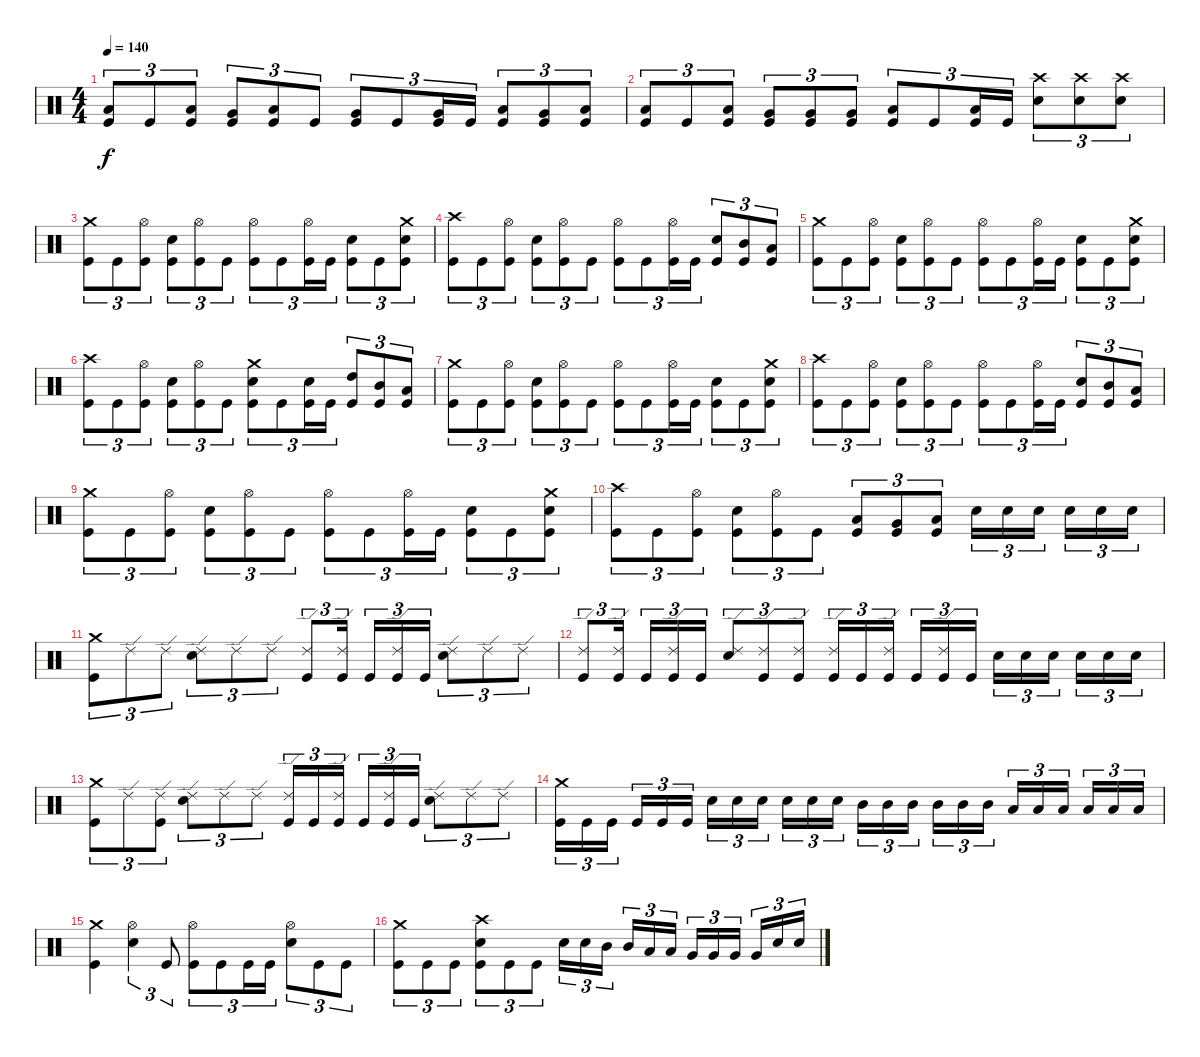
\track "" {instrument percussion}
\staff {score}
\articulation defaults
\ts (4 4)
\tempo 140
\clef neutral
\ks c
("Low Tom (hit)" "Kick (hit)").8{tu (3 2) dy f} "Kick (hit)".8{tu (3 2)} ("Low Tom (hit)" "Kick (hit)").8{tu (3 2)} ("Very Low Tom (hit)" "Kick (hit)").8{tu (3 2)} ("Low Tom (hit)" "Kick (hit)").8{tu (3 2)} "Kick (hit)".8{tu (3 2)} ("Very Low Tom (hit)" "Kick (hit)").8{tu (3 2)} "Kick (hit)".8{tu (3 2)} ("Very Low Tom (hit)" "Kick (hit)").16{tu (3 2)} "Kick (hit)".16{tu (3 2)} ("Low Floor Tom (hit)" "Kick (hit)").8{tu (3 2)} ("Kick (hit)" "Very Low Tom (hit)").8{tu (3 2)} ("Kick (hit)" "Low Floor Tom (hit)").8{tu (3 2)} |
("Low Tom (hit)" "Kick (hit)").8{tu (3 2)} "Kick (hit)".8{tu (3 2)} ("Kick (hit)" "Low Tom (hit)").8{tu (3 2)} ("Very Low Tom (hit)" "Kick (hit)").8{tu (3 2)} ("Very Low Tom (hit)" "Kick (hit)").8{tu (3 2)} ("Very Low Tom (hit)" "Kick (hit)").8{tu (3 2)} ("Low Floor Tom (hit)" "Kick (hit)").8{tu (3 2)} "Kick (hit)".8{tu (3 2)} ("Low Floor Tom (hit)" "Kick (hit)").16{tu (3 2)} "Kick (hit)".16{tu (3 2)} ("Snare (hit) 2" "Crash high (hit)").8{tu (3 2)} ("Snare (hit) 2" "Crash high (hit)").8{tu (3 2)} ("Snare (hit) 2" "Crash high (hit)").8{tu (3 2)} |
("Crash medium (hit)" "Kick (hit)").8{tu (3 2)} "Kick (hit)".8{tu (3 2)} ("Hi-Hat (open)" "Kick (hit)").8{tu (3 2)} ("Snare (hit) 2" "Kick (hit)").8{tu (3 2)} ("Hi-Hat (open)" "Kick (hit)").8{tu (3 2)} "Kick (hit)".8{tu (3 2)} ("Hi-Hat (open)" "Kick (hit)").8{tu (3 2)} "Kick (hit)".8{tu (3 2)} ("Hi-Hat (open)" "Kick (hit)").16{tu (3 2)} "Kick (hit)".16{tu (3 2)} ("Snare (hit) 2" "Kick (hit)").8{tu (3 2)} "Kick (hit)".8{tu (3 2)} ("Snare (hit) 2" "Crash medium (hit)" "Kick (hit)").8{tu (3 2)} |
("Crash high (hit)" "Kick (hit)").8{tu (3 2)} "Kick (hit)".8{tu (3 2)} ("Kick (hit)" "Hi-Hat (open)").8{tu (3 2)} ("Kick (hit)" "Snare (hit) 2").8{tu (3 2)} ("Kick (hit)" "Hi-Hat (open)").8{tu (3 2)} "Kick (hit)".8{tu (3 2)} ("Hi-Hat (open)" "Kick (hit)").8{tu (3 2)} "Kick (hit)".8{tu (3 2)} ("Hi-Hat (open)" "Kick (hit)").16{tu (3 2)} "Kick (hit)".16{tu (3 2)} ("Kick (hit)" "Snare (hit) 2").8{tu (3 2)} ("Kick (hit)" "Mid Tom (hit)").8{tu (3 2)} ("Kick (hit)" "Low Tom (hit)").8{tu (3 2)} |
("Crash medium (hit)" "Kick (hit)").8{tu (3 2)} "Kick (hit)".8{tu (3 2)} ("Kick (hit)" "Hi-Hat (open)").8{tu (3 2)} ("Kick (hit)" "Snare (hit) 2").8{tu (3 2)} ("Kick (hit)" "Hi-Hat (open)").8{tu (3 2)} "Kick (hit)".8{tu (3 2)} ("Hi-Hat (open)" "Kick (hit)").8{tu (3 2)} "Kick (hit)".8{tu (3 2)} ("Hi-Hat (open)" "Kick (hit)").16{tu (3 2)} "Kick (hit)".16{tu (3 2)} ("Kick (hit)" "Snare (hit) 2").8{tu (3 2)} "Kick (hit)".8{tu (3 2)} ("Kick (hit)" "Snare (hit) 2" "Crash medium (hit)").8{tu (3 2)} |
("Crash high (hit)" "Kick (hit)").8{tu (3 2)} "Kick (hit)".8{tu (3 2)} ("Kick (hit)" "Hi-Hat (open)").8{tu (3 2)} ("Kick (hit)" "Snare (hit) 2").8{tu (3 2)} ("Kick (hit)" "Hi-Hat (open)").8{tu (3 2)} "Kick (hit)".8{tu (3 2)} ("Snare (hit) 2" "Crash medium (hit)" "Kick (hit)").8{tu (3 2)} "Kick (hit)".8{tu (3 2)} ("Snare (hit) 2" "Kick (hit)").16{tu (3 2)} "Kick (hit)".16{tu (3 2)} ("Kick (hit)" "High Tom (hit)").8{tu (3 2)} ("Kick (hit)" "Mid Tom (hit)").8{tu (3 2)} ("Kick (hit)" "Low Tom (hit)").8{tu (3 2)} |
("Crash medium (hit)" "Kick (hit)").8{tu (3 2)} "Kick (hit)".8{tu (3 2)} ("Hi-Hat (open)" "Kick (hit)").8{tu (3 2)} ("Snare (hit) 2" "Kick (hit)").8{tu (3 2)} ("Hi-Hat (open)" "Kick (hit)").8{tu (3 2)} "Kick (hit)".8{tu (3 2)} ("Hi-Hat (open)" "Kick (hit)").8{tu (3 2)} "Kick (hit)".8{tu (3 2)} ("Hi-Hat (open)" "Kick (hit)").16{tu (3 2)} "Kick (hit)".16{tu (3 2)} ("Snare (hit) 2" "Kick (hit)").8{tu (3 2)} "Kick (hit)".8{tu (3 2)} ("Snare (hit) 2" "Crash medium (hit)" "Kick (hit)").8{tu (3 2)} |
("Crash high (hit)" "Kick (hit)").8{tu (3 2)} "Kick (hit)".8{tu (3 2)} ("Kick (hit)" "Hi-Hat (open)").8{tu (3 2)} ("Kick (hit)" "Snare (hit) 2").8{tu (3 2)} ("Kick (hit)" "Hi-Hat (open)").8{tu (3 2)} "Kick (hit)".8{tu (3 2)} ("Hi-Hat (open)" "Kick (hit)").8{tu (3 2)} "Kick (hit)".8{tu (3 2)} ("Hi-Hat (open)" "Kick (hit)").16{tu (3 2)} "Kick (hit)".16{tu (3 2)} ("Kick (hit)" "Snare (hit) 2").8{tu (3 2)} ("Kick (hit)" "Mid Tom (hit)").8{tu (3 2)} ("Kick (hit)" "Low Tom (hit)").8{tu (3 2)} |
("Crash medium (hit)" "Kick (hit)").8{tu (3 2)} "Kick (hit)".8{tu (3 2)} ("Kick (hit)" "Hi-Hat (open)").8{tu (3 2)} ("Kick (hit)" "Snare (hit) 2").8{tu (3 2)} ("Kick (hit)" "Hi-Hat (open)").8{tu (3 2)} "Kick (hit)".8{tu (3 2)} ("Hi-Hat (open)" "Kick (hit)").8{tu (3 2)} "Kick (hit)".8{tu (3 2)} ("Hi-Hat (open)" "Kick (hit)").16{tu (3 2)} "Kick (hit)".16{tu (3 2)} ("Kick (hit)" "Snare (hit) 2").8{tu (3 2)} "Kick (hit)".8{tu (3 2)} ("Kick (hit)" "Snare (hit) 2" "Crash medium (hit)").8{tu (3 2)} |
("Crash high (hit)" "Kick (hit)").8{tu (3 2)} "Kick (hit)".8{tu (3 2)} ("Kick (hit)" "Hi-Hat (open)").8{tu (3 2)} ("Kick (hit)" "Snare (hit) 2").8{tu (3 2)} ("Kick (hit)" "Hi-Hat (open)").8{tu (3 2)} "Kick (hit)".8{tu (3 2)} ("Low Tom (hit)" "Kick (hit)").8{tu (3 2)} ("Very Low Tom (hit)" "Kick (hit)").8{tu (3 2)} ("Low Floor Tom (hit)" "Kick (hit)").8{tu (3 2)} "Snare (hit) 2".16{tu (3 2)} "Snare (hit) 2".16{tu (3 2)} "Snare (hit) 2".16{tu (3 2) beam splitsecondary} "Snare (hit) 2".16{tu (3 2)} "Snare (hit) 2".16{tu (3 2)} "Snare (hit) 2".16{tu (3 2)} |
("Crash medium (hit)" "Kick (hit)").8{tu (3 2)} "Ride (edge) 2".8{tu (3 2)} "Ride (edge) 2".8{tu (3 2)} ("Snare (hit) 2" "Ride (edge) 2").8{tu (3 2)} "Ride (edge) 2".8{tu (3 2)} "Ride (edge) 2".8{tu (3 2)} ("Ride (edge) 2" "Kick (hit)").8{tu (3 2)} ("Ride (edge) 2" "Kick (hit)").16{tu (3 2) beam splitsecondary} "Kick (hit)".16{tu (3 2)} ("Ride (edge) 2" "Kick (hit)").16{tu (3 2)} "Kick (hit)".16{tu (3 2)} ("Ride (edge) 2" "Snare (hit) 2").8{tu (3 2)} "Ride (edge) 2".8{tu (3 2)} "Ride (edge) 2".8{tu (3 2)} |
("Kick (hit)" "Ride (edge) 2").8{tu (3 2)} ("Kick (hit)" "Ride (edge) 2").16{tu (3 2) beam splitsecondary} "Kick (hit)".16{tu (3 2)} ("Kick (hit)" "Ride (edge) 2").16{tu (3 2)} "Kick (hit)".16{tu (3 2)} ("Snare (hit) 2" "Ride (edge) 2").8{tu (3 2)} ("Kick (hit)" "Ride (edge) 2").8{tu (3 2)} ("Kick (hit)" "Ride (edge) 2").8{tu (3 2)} ("Kick (hit)" "Ride (edge) 2").16{tu (3 2)} "Kick (hit)".16{tu (3 2)} ("Kick (hit)" "Ride (edge) 2").16{tu (3 2) beam splitsecondary} "Kick (hit)".16{tu (3 2)} ("Kick (hit)" "Ride (edge) 2").16{tu (3 2)} "Kick (hit)".16{tu (3 2)} "Snare (hit) 2".16{tu (3 2)} "Snare (hit) 2".16{tu (3 2)} "Snare (hit) 2".16{tu (3 2) beam splitsecondary} "Snare (hit) 2".16{tu (3 2)} "Snare (hit) 2".16{tu (3 2)} "Snare (hit) 2".16{tu (3 2)} |
("Kick (hit)" "Crash medium (hit)").8{tu (3 2)} "Ride (edge) 2".8{tu (3 2)} ("Kick (hit)" "Ride (edge) 2").8{tu (3 2)} ("Ride (edge) 2" "Snare (hit) 2").8{tu (3 2)} "Ride (edge) 2".8{tu (3 2)} "Ride (edge) 2".8{tu (3 2)} ("Kick (hit)" "Ride (edge) 2").16{tu (3 2)} "Kick (hit)".16{tu (3 2)} ("Kick (hit)" "Ride (edge) 2").16{tu (3 2) beam splitsecondary} "Kick (hit)".16{tu (3 2)} ("Kick (hit)" "Ride (edge) 2").16{tu (3 2)} "Kick (hit)".16{tu (3 2)} ("Ride (edge) 2" "Snare (hit) 2").8{tu (3 2)} "Ride (edge) 2".8{tu (3 2)} "Ride (edge) 2".8{tu (3 2)} |
("Kick (hit)" "Crash medium (hit)").16{tu (3 2)} "Kick (hit)".16{tu (3 2)} "Kick (hit)".16{tu (3 2) beam splitsecondary} "Kick (hit)".16{tu (3 2)} "Kick (hit)".16{tu (3 2)} "Kick (hit)".16{tu (3 2)} "Snare (hit) 2".16{tu (3 2)} "Snare (hit) 2".16{tu (3 2)} "Snare (hit) 2".16{tu (3 2) beam splitsecondary} "Snare (hit) 2".16{tu (3 2)} "Snare (hit) 2".16{tu (3 2)} "Snare (hit) 2".16{tu (3 2)} "Mid Tom (hit)".16{tu (3 2)} "Mid Tom (hit)".16{tu (3 2)} "Mid Tom (hit)".16{tu (3 2) beam splitsecondary} "Mid Tom (hit)".16{tu (3 2)} "Mid Tom (hit)".16{tu (3 2)} "Mid Tom (hit)".16{tu (3 2)} "Low Tom (hit)".16{tu (3 2)} "Low Tom (hit)".16{tu (3 2)} "Low Tom (hit)".16{tu (3 2) beam splitsecondary} "Low Tom (hit)".16{tu (3 2)} "Low Tom (hit)".16{tu (3 2)} "Low Tom (hit)".16{tu (3 2)} |
("Kick (hit)" "Crash medium (hit)").4 ("Snare (hit) 2" "Hi-Hat (open)").4{tu (3 2)} "Kick (hit)".8{tu (3 2)} ("Kick (hit)" "Hi-Hat (open)").8{tu (3 2)} "Kick (hit)".8{tu (3 2)} "Kick (hit)".16{tu (3 2)} "Kick (hit)".16{tu (3 2)} ("Snare (hit) 2" "Hi-Hat (open)").8{tu (3 2)} "Kick (hit)".8{tu (3 2)} "Kick (hit)".8{tu (3 2)} |
("Kick (hit)" "Crash medium (hit)").8{tu (3 2)} "Kick (hit)".8{tu (3 2)} "Kick (hit)".8{tu (3 2)} ("Snare (hit) 2" "Kick (hit)" "Crash high (hit)").8{tu (3 2)} "Kick (hit)".8{tu (3 2)} "Kick (hit)".8{tu (3 2)} "Snare (hit) 2".16{tu (3 2)} "Snare (hit) 2".16{tu (3 2)} "Mid Tom (hit)".16{tu (3 2) beam splitsecondary} "Mid Tom (hit)".16{tu (3 2)} "Low Tom (hit)".16{tu (3 2)} "Low Tom (hit)".16{tu (3 2)} "Very Low Tom (hit)".16{tu (3 2)} "Very Low Tom (hit)".16{tu (3 2)} "Very Low Tom (hit)".16{tu (3 2) beam splitsecondary} "Very Low Tom (hit)".16{tu (3 2)} "Snare (hit) 2".16{tu (3 2)} "Snare (hit) 2".16{tu (3 2)}
